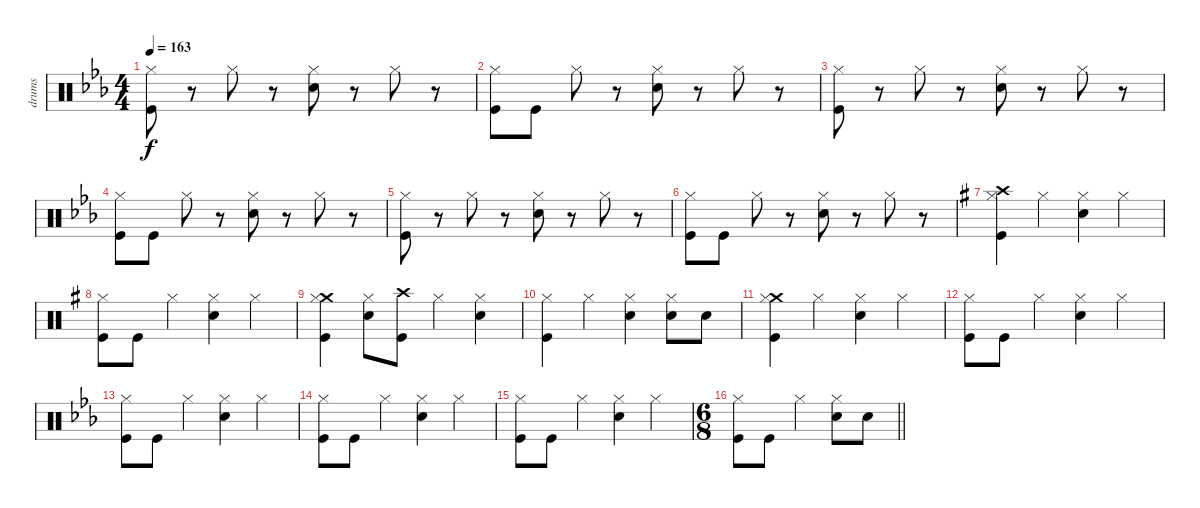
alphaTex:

\track ("drums" "drums") {instrument percussion}
\staff {score}
\articulation defaults
\ts (4 4)
\tempo 163
\clef neutral
\ks cminor
("Kick (hit)" "Hi-Hat (closed)").8{dy f} r.8 "Hi-Hat (closed)".8 r.8 ("Electric Snare (hit)" "Hi-Hat (closed)").8 r.8 "Hi-Hat (closed)".8 r.8 |
("Kick (hit)" "Hi-Hat (closed)").8 "Kick (hit)".8 "Hi-Hat (closed)".8 r.8 ("Electric Snare (hit)" "Hi-Hat (closed)").8 r.8 "Hi-Hat (closed)".8 r.8 |
("Kick (hit)" "Hi-Hat (closed)").8 r.8 "Hi-Hat (closed)".8 r.8 ("Electric Snare (hit)" "Hi-Hat (closed)").8 r.8 "Hi-Hat (closed)".8 r.8 |
("Kick (hit)" "Hi-Hat (closed)").8 "Kick (hit)".8 "Hi-Hat (closed)".8 r.8 ("Electric Snare (hit)" "Hi-Hat (closed)").8 r.8 "Hi-Hat (closed)".8 r.8 |
("Kick (hit)" "Hi-Hat (closed)").8 r.8 "Hi-Hat (closed)".8 r.8 ("Electric Snare (hit)" "Hi-Hat (closed)").8 r.8 "Hi-Hat (closed)".8 r.8 |
("Kick (hit)" "Hi-Hat (closed)").8 "Kick (hit)".8 "Hi-Hat (closed)".8 r.8 ("Electric Snare (hit)" "Hi-Hat (closed)").8 r.8 "Hi-Hat (closed)".8 r.8 |
\ks eminor
("Kick (hit)" "Crash high (hit)" "Hi-Hat (closed)").4 "Hi-Hat (closed)".4 ("Snare (hit) 2" "Hi-Hat (closed)").4 "Hi-Hat (closed)".4 |
("Kick (hit)" "Hi-Hat (closed)").8 "Kick (hit)".8 "Hi-Hat (closed)".4 ("Snare (hit) 2" "Hi-Hat (closed)").4 "Hi-Hat (closed)".4 |
("Kick (hit)" "Crash medium (hit)" "Hi-Hat (closed)").4 ("Snare (hit) 2" "Hi-Hat (closed)").8 ("Crash high (hit)" "Kick (hit)").8 "Hi-Hat (closed)".4 ("Snare (hit) 2" "Hi-Hat (closed)").4 |
("Kick (hit)" "Hi-Hat (closed)").4 "Hi-Hat (closed)".4 ("Snare (hit) 2" "Hi-Hat (closed)").4 ("Snare (hit) 2" "Hi-Hat (closed)").8 "Snare (hit) 2".8 |
("Crash medium (hit)" "Kick (hit)" "Hi-Hat (closed)").4 "Hi-Hat (closed)".4 ("Electric Snare (hit)" "Hi-Hat (closed)").4 "Hi-Hat (closed)".4 |
("Kick (hit)" "Hi-Hat (closed)").8 "Kick (hit)".8 "Hi-Hat (closed)".4 ("Electric Snare (hit)" "Hi-Hat (closed)").4 "Hi-Hat (closed)".4 |
\ks cminor
("Kick (hit)" "Hi-Hat (closed)").8 "Kick (hit)".8 "Hi-Hat (closed)".4 ("Snare (hit) 2" "Hi-Hat (closed)").4 "Hi-Hat (closed)".4 |
("Kick (hit)" "Hi-Hat (closed)").8 "Kick (hit)".8 "Hi-Hat (closed)".4 ("Snare (hit) 2" "Hi-Hat (closed)").4 "Hi-Hat (closed)".4 |
("Kick (hit)" "Hi-Hat (closed)").8 "Kick (hit)".8 "Hi-Hat (closed)".4 ("Electric Snare (hit)" "Hi-Hat (closed)").4 "Hi-Hat (closed)".4 |
\ts (6 8)
\barLineRight lightlight
("Kick (hit)" "Hi-Hat (closed)").8 "Kick (hit)".8 "Hi-Hat (closed)".4 ("Electric Snare (hit)" "Hi-Hat (closed)").8 "Electric Snare (hit)".8
